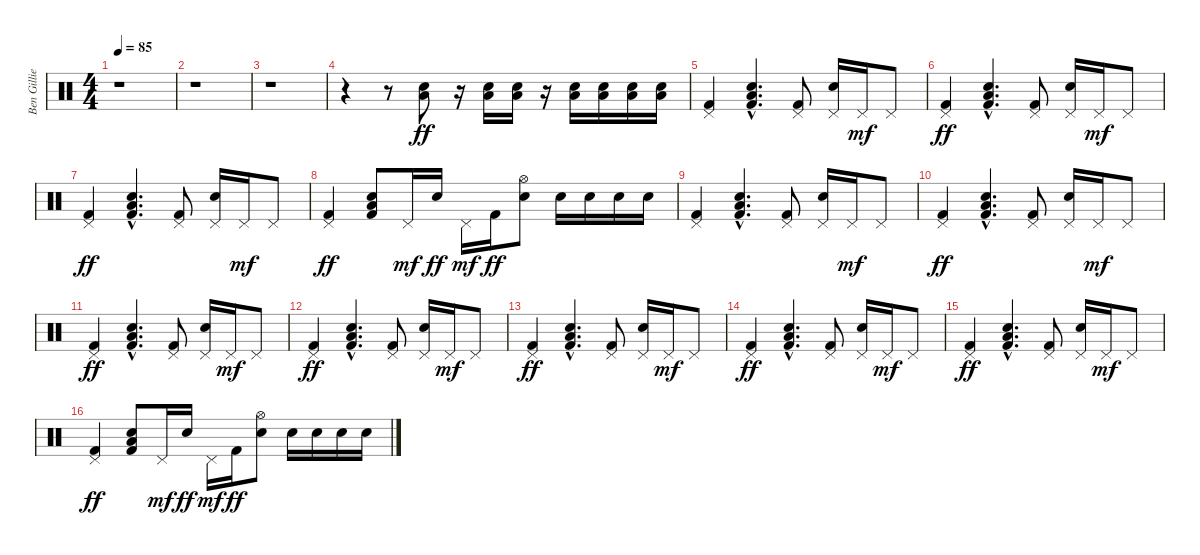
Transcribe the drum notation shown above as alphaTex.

\track ("Ben Gillies" "Ben Gillie") {instrument percussion}
\staff {score}
\articulation defaults
\ts (4 4)
\tempo 85
\clef neutral
\ks c
r.1{dy ff} |
r.1 |
r.1 |
r.4 r.8 ("Low Floor Tom (hit)" "Electric Snare (hit)").8 r.16 ("Low Floor Tom (hit)" "Electric Snare (hit)").16 ("Low Floor Tom (hit)" "Electric Snare (hit)").16 r.16 ("Low Floor Tom (hit)" "Electric Snare (hit)").16 ("Low Floor Tom (hit)" "Electric Snare (hit)").16 ("Low Floor Tom (hit)" "Electric Snare (hit)").16 ("Low Floor Tom (hit)" "Electric Snare (hit)").16 |
("Pedal Hi-Hat (hit)" "Kick (hit) 2").4 ("Low Floor Tom (hit)"{hac} "Electric Snare (hit)"{hac} "Kick (hit) 2"{hac}).4{d} ("Pedal Hi-Hat (hit)" "Kick (hit) 2").8 ("Pedal Hi-Hat (hit)" "Electric Snare (hit)").16 "Pedal Hi-Hat (hit)".16{dy mf} "Pedal Hi-Hat (hit)".8 |
("Pedal Hi-Hat (hit)" "Kick (hit) 2").4{dy ff} ("Low Floor Tom (hit)"{hac} "Electric Snare (hit)"{hac} "Kick (hit) 2"{hac}).4{d} ("Pedal Hi-Hat (hit)" "Kick (hit) 2").8 ("Pedal Hi-Hat (hit)" "Electric Snare (hit)").16 "Pedal Hi-Hat (hit)".16{dy mf} "Pedal Hi-Hat (hit)".8 |
("Pedal Hi-Hat (hit)" "Kick (hit) 2").4{dy ff} ("Low Floor Tom (hit)"{hac} "Electric Snare (hit)"{hac} "Kick (hit) 2"{hac}).4{d} ("Pedal Hi-Hat (hit)" "Kick (hit) 2").8 ("Pedal Hi-Hat (hit)" "Electric Snare (hit)").16 "Pedal Hi-Hat (hit)".16{dy mf} "Pedal Hi-Hat (hit)".8 |
("Pedal Hi-Hat (hit)" "Kick (hit) 2").4{dy ff} ("Low Floor Tom (hit)" "Electric Snare (hit)" "Kick (hit) 2").8 "Pedal Hi-Hat (hit)".16{dy mf} "Electric Snare (hit)".16{dy ff} "Pedal Hi-Hat (hit)".16{dy mf} "Kick (hit) 2".16{dy ff} ("Hi-Hat (open)" "Electric Snare (hit)").8 "Electric Snare (hit)".16 "Electric Snare (hit)".16 "Electric Snare (hit)".16 "Electric Snare (hit)".16 |
("Pedal Hi-Hat (hit)" "Kick (hit) 2").4 ("Low Floor Tom (hit)"{hac} "Electric Snare (hit)"{hac} "Kick (hit) 2"{hac}).4{d} ("Pedal Hi-Hat (hit)" "Kick (hit) 2").8 ("Pedal Hi-Hat (hit)" "Electric Snare (hit)").16 "Pedal Hi-Hat (hit)".16{dy mf} "Pedal Hi-Hat (hit)".8 |
("Pedal Hi-Hat (hit)" "Kick (hit) 2").4{dy ff} ("Low Floor Tom (hit)"{hac} "Electric Snare (hit)"{hac} "Kick (hit) 2"{hac}).4{d} ("Pedal Hi-Hat (hit)" "Kick (hit) 2").8 ("Pedal Hi-Hat (hit)" "Electric Snare (hit)").16 "Pedal Hi-Hat (hit)".16{dy mf} "Pedal Hi-Hat (hit)".8 |
("Pedal Hi-Hat (hit)" "Kick (hit) 2").4{dy ff} ("Low Floor Tom (hit)"{hac} "Electric Snare (hit)"{hac} "Kick (hit) 2"{hac}).4{d} ("Pedal Hi-Hat (hit)" "Kick (hit) 2").8 ("Pedal Hi-Hat (hit)" "Electric Snare (hit)").16 "Pedal Hi-Hat (hit)".16{dy mf} "Pedal Hi-Hat (hit)".8 |
("Pedal Hi-Hat (hit)" "Kick (hit) 2").4{dy ff} ("Low Floor Tom (hit)"{hac} "Electric Snare (hit)"{hac} "Kick (hit) 2"{hac}).4{d} ("Pedal Hi-Hat (hit)" "Kick (hit) 2").8 ("Pedal Hi-Hat (hit)" "Electric Snare (hit)").16 "Pedal Hi-Hat (hit)".16{dy mf} "Pedal Hi-Hat (hit)".8 |
("Pedal Hi-Hat (hit)" "Kick (hit) 2").4{dy ff} ("Low Floor Tom (hit)"{hac} "Electric Snare (hit)"{hac} "Kick (hit) 2"{hac}).4{d} ("Pedal Hi-Hat (hit)" "Kick (hit) 2").8 ("Pedal Hi-Hat (hit)" "Electric Snare (hit)").16 "Pedal Hi-Hat (hit)".16{dy mf} "Pedal Hi-Hat (hit)".8 |
("Pedal Hi-Hat (hit)" "Kick (hit) 2").4{dy ff} ("Low Floor Tom (hit)"{hac} "Electric Snare (hit)"{hac} "Kick (hit) 2"{hac}).4{d} ("Pedal Hi-Hat (hit)" "Kick (hit) 2").8 ("Pedal Hi-Hat (hit)" "Electric Snare (hit)").16 "Pedal Hi-Hat (hit)".16{dy mf} "Pedal Hi-Hat (hit)".8 |
("Pedal Hi-Hat (hit)" "Kick (hit) 2").4{dy ff} ("Low Floor Tom (hit)"{hac} "Electric Snare (hit)"{hac} "Kick (hit) 2"{hac}).4{d} ("Pedal Hi-Hat (hit)" "Kick (hit) 2").8 ("Pedal Hi-Hat (hit)" "Electric Snare (hit)").16 "Pedal Hi-Hat (hit)".16{dy mf} "Pedal Hi-Hat (hit)".8 |
("Pedal Hi-Hat (hit)" "Kick (hit) 2").4{dy ff} ("Low Floor Tom (hit)" "Electric Snare (hit)" "Kick (hit) 2").8 "Pedal Hi-Hat (hit)".16{dy mf} "Electric Snare (hit)".16{dy ff} "Pedal Hi-Hat (hit)".16{dy mf} "Kick (hit) 2".16{dy ff} ("Hi-Hat (open)" "Electric Snare (hit)").8 "Electric Snare (hit)".16 "Electric Snare (hit)".16 "Electric Snare (hit)".16 "Electric Snare (hit)".16
